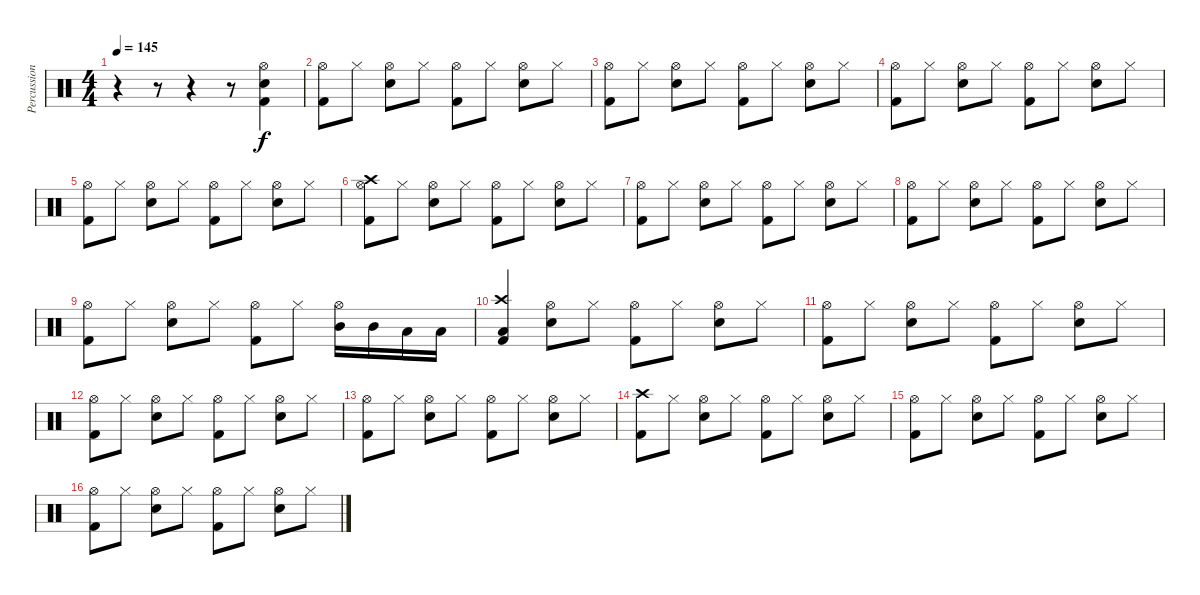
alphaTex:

\track ("Percussion" "Percussion") {instrument percussion bank 1}
\staff {score}
\articulation defaults
\ts (4 4)
\tempo 145
\clef neutral
\ks c
r.4{dy f} r.8 r.4 r.8 ("Hi-Hat (open)" "Electric Snare (hit)" "Kick (hit) 2").4 |
("Kick (hit) 2" "Hi-Hat (open)").8 "Hi-Hat (closed)".8 ("Electric Snare (hit)" "Hi-Hat (open)").8 "Hi-Hat (closed)".8 ("Kick (hit) 2" "Hi-Hat (open)").8 "Hi-Hat (closed)".8 ("Electric Snare (hit)" "Hi-Hat (open)").8 "Hi-Hat (closed)".8 |
("Kick (hit) 2" "Hi-Hat (open)").8 "Hi-Hat (closed)".8 ("Electric Snare (hit)" "Hi-Hat (open)").8 "Hi-Hat (closed)".8 ("Kick (hit) 2" "Hi-Hat (open)").8 "Hi-Hat (closed)".8 ("Electric Snare (hit)" "Hi-Hat (open)").8 "Hi-Hat (closed)".8 |
("Kick (hit) 2" "Hi-Hat (open)").8 "Hi-Hat (closed)".8 ("Electric Snare (hit)" "Hi-Hat (open)").8 "Hi-Hat (closed)".8 ("Kick (hit) 2" "Hi-Hat (open)").8 "Hi-Hat (closed)".8 ("Electric Snare (hit)" "Hi-Hat (open)").8 "Hi-Hat (closed)".8 |
("Kick (hit) 2" "Hi-Hat (open)").8 "Hi-Hat (closed)".8 ("Electric Snare (hit)" "Hi-Hat (open)").8 "Hi-Hat (closed)".8 ("Kick (hit) 2" "Hi-Hat (open)").8 "Hi-Hat (closed)".8 ("Electric Snare (hit)" "Hi-Hat (open)").8 "Hi-Hat (closed)".8 |
("Kick (hit) 2" "Crash high (hit)" "Hi-Hat (open)").8 "Hi-Hat (closed)".8 ("Electric Snare (hit)" "Hi-Hat (open)").8 "Hi-Hat (closed)".8 ("Kick (hit) 2" "Hi-Hat (open)").8 "Hi-Hat (closed)".8 ("Electric Snare (hit)" "Hi-Hat (open)").8 "Hi-Hat (closed)".8 |
("Kick (hit) 2" "Hi-Hat (open)").8 "Hi-Hat (closed)".8 ("Electric Snare (hit)" "Hi-Hat (open)").8 "Hi-Hat (closed)".8 ("Kick (hit) 2" "Hi-Hat (open)").8 "Hi-Hat (closed)".8 ("Electric Snare (hit)" "Hi-Hat (open)").8 "Hi-Hat (closed)".8 |
("Kick (hit) 2" "Hi-Hat (open)").8 "Hi-Hat (closed)".8 ("Electric Snare (hit)" "Hi-Hat (open)").8 "Hi-Hat (closed)".8 ("Kick (hit) 2" "Hi-Hat (open)").8 "Hi-Hat (closed)".8 ("Electric Snare (hit)" "Hi-Hat (open)").8 "Hi-Hat (closed)".8 |
("Kick (hit) 2" "Hi-Hat (open)").8 "Hi-Hat (closed)".8 ("Electric Snare (hit)" "Hi-Hat (open)").8 "Hi-Hat (closed)".8 ("Kick (hit) 2" "Hi-Hat (open)").8 "Hi-Hat (closed)".8 ("Mid Tom (hit)" "Hi-Hat (open)").16 "Mid Tom (hit)".16 "Low Tom (hit)".16 "Low Tom (hit)".16 |
("Crash high (hit)" "Low Floor Tom (hit)" "Kick (hit) 2").4 ("Electric Snare (hit)" "Hi-Hat (open)").8 "Hi-Hat (closed)".8 ("Kick (hit) 2" "Hi-Hat (open)").8 "Hi-Hat (closed)".8 ("Electric Snare (hit)" "Hi-Hat (open)").8 "Hi-Hat (closed)".8 |
("Kick (hit) 2" "Hi-Hat (open)").8 "Hi-Hat (closed)".8 ("Electric Snare (hit)" "Hi-Hat (open)").8 "Hi-Hat (closed)".8 ("Kick (hit) 2" "Hi-Hat (open)").8 "Hi-Hat (closed)".8 ("Electric Snare (hit)" "Hi-Hat (open)").8 "Hi-Hat (closed)".8 |
("Kick (hit) 2" "Hi-Hat (open)").8 "Hi-Hat (closed)".8 ("Electric Snare (hit)" "Hi-Hat (open)").8 "Hi-Hat (closed)".8 ("Kick (hit) 2" "Hi-Hat (open)").8 "Hi-Hat (closed)".8 ("Electric Snare (hit)" "Hi-Hat (open)").8 "Hi-Hat (closed)".8 |
("Kick (hit) 2" "Hi-Hat (open)").8 "Hi-Hat (closed)".8 ("Electric Snare (hit)" "Hi-Hat (open)").8 "Hi-Hat (closed)".8 ("Kick (hit) 2" "Hi-Hat (open)").8 "Hi-Hat (closed)".8 ("Electric Snare (hit)" "Hi-Hat (open)").8 "Hi-Hat (closed)".8 |
("Kick (hit) 2" "Crash high (hit)").8 "Hi-Hat (closed)".8 ("Electric Snare (hit)" "Hi-Hat (open)").8 "Hi-Hat (closed)".8 ("Kick (hit) 2" "Hi-Hat (open)").8 "Hi-Hat (closed)".8 ("Electric Snare (hit)" "Hi-Hat (open)").8 "Hi-Hat (closed)".8 |
("Kick (hit) 2" "Hi-Hat (open)").8 "Hi-Hat (closed)".8 ("Electric Snare (hit)" "Hi-Hat (open)").8 "Hi-Hat (closed)".8 ("Kick (hit) 2" "Hi-Hat (open)").8 "Hi-Hat (closed)".8 ("Electric Snare (hit)" "Hi-Hat (open)").8 "Hi-Hat (closed)".8 |
("Kick (hit) 2" "Hi-Hat (open)").8 "Hi-Hat (closed)".8 ("Electric Snare (hit)" "Hi-Hat (open)").8 "Hi-Hat (closed)".8 ("Kick (hit) 2" "Hi-Hat (open)").8 "Hi-Hat (closed)".8 ("Electric Snare (hit)" "Hi-Hat (open)").8 "Hi-Hat (closed)".8
